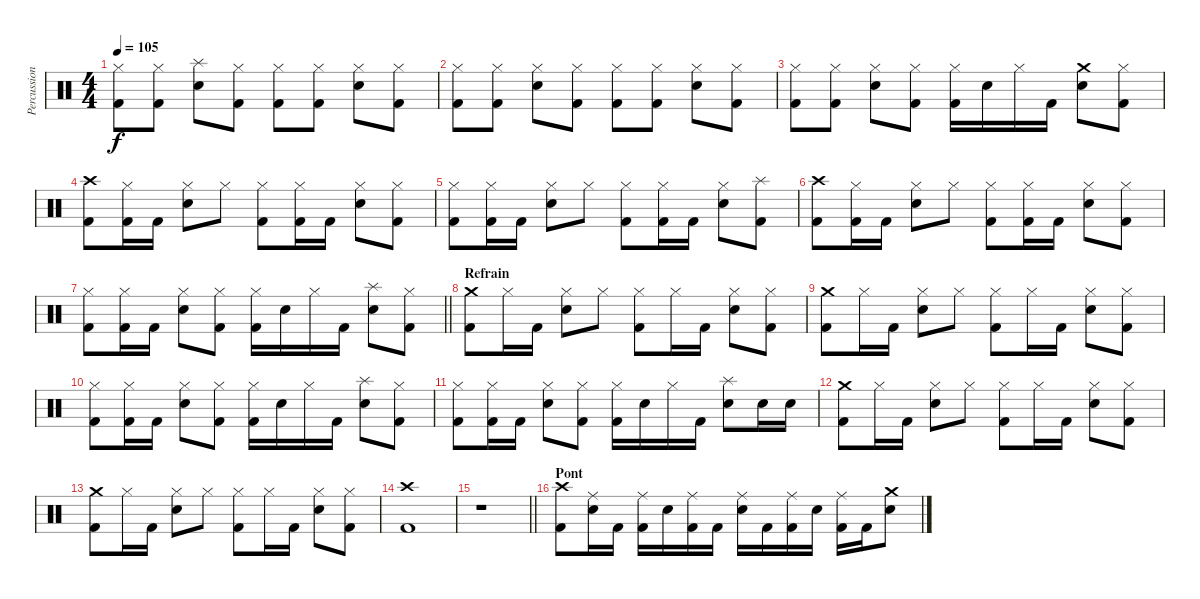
\track ("Percussions" "Percussion") {instrument percussion}
\staff {score}
\articulation defaults
\ts (4 4)
\tempo 105
\clef neutral
\ks c
("Hi-Hat (closed)" "Kick (hit) 2").8{dy f} ("Hi-Hat (closed)" "Kick (hit) 2").8 ("Splash (hit)" "Electric Snare (hit)").8 ("Hi-Hat (closed)" "Kick (hit) 2").8 ("Hi-Hat (closed)" "Kick (hit) 2").8 ("Hi-Hat (closed)" "Kick (hit) 2").8 ("Hi-Hat (closed)" "Electric Snare (hit)").8 ("Hi-Hat (closed)" "Kick (hit) 2").8 |
("Hi-Hat (closed)" "Kick (hit) 2").8 ("Hi-Hat (closed)" "Kick (hit) 2").8 ("Hi-Hat (closed)" "Electric Snare (hit)").8 ("Hi-Hat (closed)" "Kick (hit) 2").8 ("Hi-Hat (closed)" "Kick (hit) 2").8 ("Hi-Hat (closed)" "Kick (hit) 2").8 ("Hi-Hat (closed)" "Electric Snare (hit)").8 ("Hi-Hat (closed)" "Kick (hit) 2").8 |
("Hi-Hat (closed)" "Kick (hit) 2").8 ("Hi-Hat (closed)" "Kick (hit) 2").8 ("Hi-Hat (closed)" "Electric Snare (hit)").8 ("Hi-Hat (closed)" "Kick (hit) 2").8 ("Hi-Hat (closed)" "Kick (hit) 2").16 "Electric Snare (hit)".16 "Hi-Hat (closed)".16 "Kick (hit) 2".16 ("Crash medium (hit)" "Electric Snare (hit)").8 ("Hi-Hat (closed)" "Kick (hit) 2").8 |
("Crash high (hit)" "Kick (hit) 2").8 ("Hi-Hat (closed)" "Kick (hit) 2").16 "Kick (hit) 2".16 ("Hi-Hat (closed)" "Electric Snare (hit)").8 "Hi-Hat (closed)".8 ("Hi-Hat (closed)" "Kick (hit) 2").8 ("Hi-Hat (closed)" "Kick (hit) 2").16 "Kick (hit) 2".16 ("Hi-Hat (closed)" "Electric Snare (hit)").8 ("Hi-Hat (closed)" "Kick (hit) 2").8 |
("Hi-Hat (closed)" "Kick (hit) 2").8 ("Hi-Hat (closed)" "Kick (hit) 2").16 "Kick (hit) 2".16 ("Hi-Hat (closed)" "Electric Snare (hit)").8 "Hi-Hat (closed)".8 ("Hi-Hat (closed)" "Kick (hit) 2").8 ("Hi-Hat (closed)" "Kick (hit) 2").16 "Kick (hit) 2".16 ("Hi-Hat (closed)" "Electric Snare (hit)").8 ("Splash (hit)" "Kick (hit) 2").8 |
("Crash high (hit)" "Kick (hit) 2").8 ("Hi-Hat (closed)" "Kick (hit) 2").16 "Kick (hit) 2".16 ("Hi-Hat (closed)" "Electric Snare (hit)").8 "Hi-Hat (closed)".8 ("Hi-Hat (closed)" "Kick (hit) 2").8 ("Hi-Hat (closed)" "Kick (hit) 2").16 "Kick (hit) 2".16 ("Hi-Hat (closed)" "Electric Snare (hit)").8 ("Hi-Hat (closed)" "Kick (hit) 2").8 |
\barLineRight lightlight
("Hi-Hat (closed)" "Kick (hit) 2").8 ("Hi-Hat (closed)" "Kick (hit) 2").16 "Kick (hit) 2".16 ("Hi-Hat (closed)" "Electric Snare (hit)").8 ("Hi-Hat (closed)" "Kick (hit) 2").8 ("Hi-Hat (closed)" "Kick (hit) 2").16 "Electric Snare (hit)".16 "Hi-Hat (closed)".16 "Kick (hit) 2".16 ("Splash (hit)" "Electric Snare (hit)").8 ("Hi-Hat (closed)" "Kick (hit) 2").8 |
\section ("" "Refrain")
("Crash medium (hit)" "Kick (hit) 2").8 "Hi-Hat (closed)".16 "Kick (hit) 2".16 ("Hi-Hat (closed)" "Electric Snare (hit)").8 "Hi-Hat (closed)".8 ("Hi-Hat (closed)" "Kick (hit) 2").8 "Hi-Hat (closed)".16 "Kick (hit) 2".16 ("Hi-Hat (closed)" "Electric Snare (hit)").8 ("Hi-Hat (closed)" "Kick (hit) 2").8 |
("Crash medium (hit)" "Kick (hit) 2").8 "Hi-Hat (closed)".16 "Kick (hit) 2".16 ("Hi-Hat (closed)" "Electric Snare (hit)").8 "Hi-Hat (closed)".8 ("Hi-Hat (closed)" "Kick (hit) 2").8 "Hi-Hat (closed)".16 "Kick (hit) 2".16 ("Hi-Hat (closed)" "Electric Snare (hit)").8 ("Hi-Hat (closed)" "Kick (hit) 2").8 |
("Hi-Hat (closed)" "Kick (hit) 2").8 ("Hi-Hat (closed)" "Kick (hit) 2").16 "Kick (hit) 2".16 ("Hi-Hat (closed)" "Electric Snare (hit)").8 ("Hi-Hat (closed)" "Kick (hit) 2").8 ("Hi-Hat (closed)" "Kick (hit) 2").16 "Electric Snare (hit)".16 "Hi-Hat (closed)".16 "Kick (hit) 2".16 ("Splash (hit)" "Electric Snare (hit)").8 ("Hi-Hat (closed)" "Kick (hit) 2").8 |
("Hi-Hat (closed)" "Kick (hit) 2").8 ("Hi-Hat (closed)" "Kick (hit) 2").16 "Kick (hit) 2".16 ("Hi-Hat (closed)" "Electric Snare (hit)").8 ("Hi-Hat (closed)" "Kick (hit) 2").8 ("Hi-Hat (closed)" "Kick (hit) 2").16 "Electric Snare (hit)".16 "Hi-Hat (closed)".16 "Kick (hit) 2".16 ("Splash (hit)" "Electric Snare (hit)").8 "Electric Snare (hit)".16 "Electric Snare (hit)".16 |
("Crash medium (hit)" "Kick (hit) 2").8 "Hi-Hat (closed)".16 "Kick (hit) 2".16 ("Hi-Hat (closed)" "Electric Snare (hit)").8 "Hi-Hat (closed)".8 ("Hi-Hat (closed)" "Kick (hit) 2").8 "Hi-Hat (closed)".16 "Kick (hit) 2".16 ("Hi-Hat (closed)" "Electric Snare (hit)").8 ("Hi-Hat (closed)" "Kick (hit) 2").8 |
("Crash medium (hit)" "Kick (hit) 2").8 "Hi-Hat (closed)".16 "Kick (hit) 2".16 ("Hi-Hat (closed)" "Electric Snare (hit)").8 "Hi-Hat (closed)".8 ("Hi-Hat (closed)" "Kick (hit) 2").8 "Hi-Hat (closed)".16 "Kick (hit) 2".16 ("Hi-Hat (closed)" "Electric Snare (hit)").8 ("Hi-Hat (closed)" "Kick (hit) 2").8 |
("Crash high (hit)" "Kick (hit) 2").1 |
\barLineRight lightlight
r.1 |
\section ("" "Pont")
("Crash high (hit)" "Kick (hit) 2").8 ("Ride (middle)" "Electric Snare (hit)").16 "Kick (hit) 2".16 ("Ride (middle)" "Kick (hit) 2").16 "Electric Snare (hit)".16 ("Ride (middle)" "Kick (hit) 2").16 "Kick (hit) 2".16 ("Ride (middle)" "Electric Snare (hit)").16 "Kick (hit) 2".16 ("Ride (middle)" "Kick (hit) 2").16 "Electric Snare (hit)".16 ("Ride (middle)" "Kick (hit) 2").16 "Kick (hit) 2".16 ("Crash medium (hit)" "Electric Snare (hit)").8
